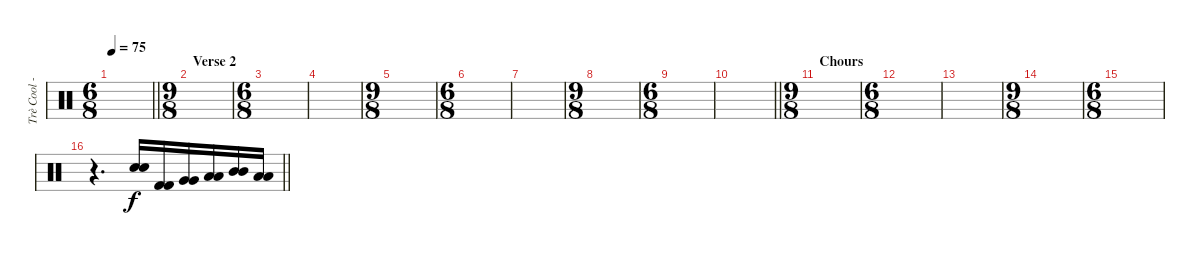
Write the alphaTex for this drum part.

\track ("Trè Cool - Drums" "Trè Cool -") {instrument percussion}
\staff {score}
\articulation defaults
\ts (6 8)
\tempo 75
\clef neutral
\barLineRight lightlight
\ks c
|
\ts (9 8)
\section ("" "Verse 2")
|
\ts (6 8)
|
|
\ts (9 8)
|
\ts (6 8)
|
|
\ts (9 8)
|
\ts (6 8)
|
\barLineRight lightlight
|
\ts (9 8)
\section ("" "Chours")
|
\ts (6 8)
|
|
\ts (9 8)
|
\ts (6 8)
|
\barLineRight lightlight
r.4{d} ("Electric Snare (hit)" "Electric Snare (hit)").16 ("Kick (hit) 2" "Kick (hit) 2").16 ("Very Low Tom (hit)" "Very Low Tom (hit)").16 ("Low Tom (hit)" "Low Tom (hit)").16 ("Mid Tom (hit)" "Mid Tom (hit)").16 ("Low Tom (hit)" "Low Tom (hit)").16
